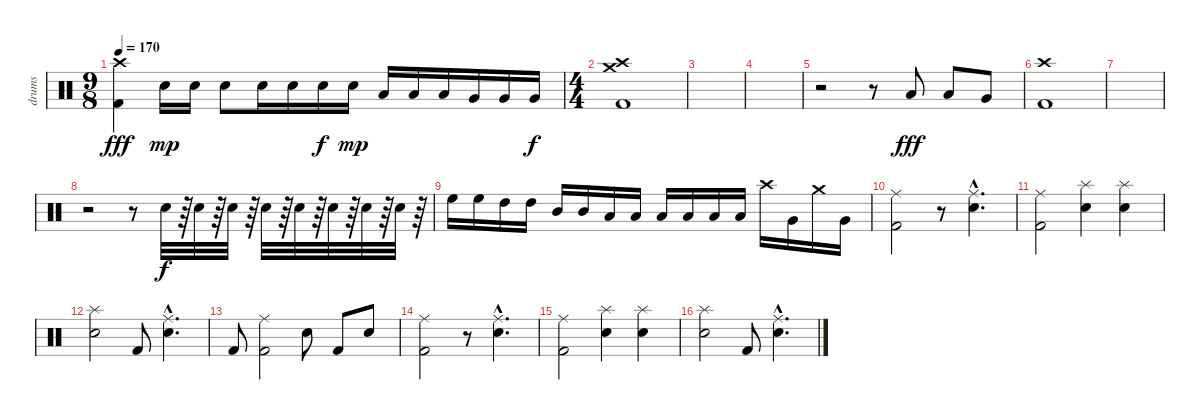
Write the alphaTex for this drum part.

\track ("drums" "drums") {instrument percussion}
\staff {score}
\articulation defaults
\ts (9 8)
\tempo 170
\clef neutral
\ks c
("Crash high (hit)" "Kick (hit) 2").4{dy fff} "Snare (hit) 2".16{dy mp} "Snare (hit) 2".16 "Snare (hit) 2".8 "Snare (hit) 2".16 "Snare (hit) 2".16 "Snare (hit) 2".16{dy f} "Snare (hit) 2".16{dy mp} "Low Floor Tom (hit)".16 "Low Floor Tom (hit)".16 "Low Floor Tom (hit)".16 "Very Low Tom (hit)".16 "Very Low Tom (hit)".16 "Very Low Tom (hit)".16{dy f} |
\ts (4 4)
("Crash high (hit)" "Crash medium (hit)" "Kick (hit) 2").1 |
|
|
r.2 r.8 "Low Tom (hit)".8{dy fff} "Low Floor Tom (hit)".8 "Very Low Tom (hit)".8 |
("Crash high (hit)" "Kick (hit) 2").1 |
|
r.2 r.8 "Snare (hit) 2".32{dy f} r.64 "Snare (hit) 2".32 r.64 "Snare (hit) 2".32 r.64 "Snare (hit) 2".32 r.64 "Snare (hit) 2".32 r.64 "Snare (hit) 2".32 r.64 "Snare (hit) 2".32 r.64 "Snare (hit) 2".32 r.64 |
"High Floor Tom (hit)".16 "High Floor Tom (hit)".16 "High Tom (hit)".16 "High Tom (hit)".16 "Mid Tom (hit)".16 "Mid Tom (hit)".16 "Low Tom (hit)".16 "Low Tom (hit)".16 "Low Floor Tom (hit)".16 "Low Floor Tom (hit)".16 "Low Floor Tom (hit)".16 "Low Floor Tom (hit)".16 "Crash high (hit)".16 "Very Low Tom (hit)".16 "Crash medium (hit)".16 "Very Low Tom (hit)".16 |
("Ride (middle)" "Kick (hit) 2").2 r.8 ("Ride (middle)"{hac} "Snare (hit) 2"{hac}).4{d} |
("Ride (middle)" "Kick (hit) 2").2 ("Splash (hit)" "Snare (hit) 2").4 ("Splash (hit)" "Snare (hit) 2").4 |
("Splash (hit)" "Snare (hit) 2").2 "Kick (hit) 2".8 ("Ride (middle)"{hac} "Snare (hit) 2"{hac}).4{d} |
"Kick (hit) 2".8 ("Ride (middle)" "Kick (hit) 2").2 "Snare (hit) 2".8 "Kick (hit) 2".8 "Snare (hit) 2".8 |
("Ride (middle)" "Kick (hit) 2").2 r.8 ("Ride (middle)"{hac} "Snare (hit) 2"{hac}).4{d} |
("Ride (middle)" "Kick (hit) 2").2 ("Splash (hit)" "Snare (hit) 2").4 ("Splash (hit)" "Snare (hit) 2").4 |
("Splash (hit)" "Snare (hit) 2").2 "Kick (hit) 2".8 ("Ride (middle)"{hac} "Snare (hit) 2"{hac}).4{d}
